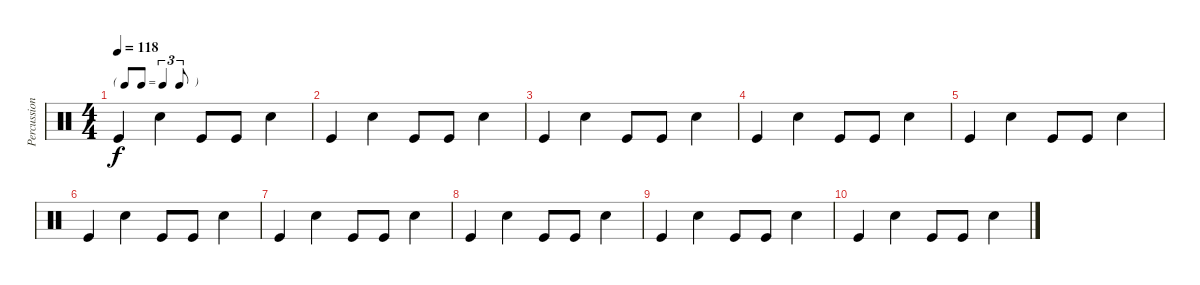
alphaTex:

\track ("Percussion" "Percussion") {instrument percussion}
\staff {score}
\articulation defaults
\ts (4 4)
\tf triplet8th
\tempo 118
\clef neutral
\ks c "Kick (hit)".4{dy f} "Snare (hit) 2".4 "Kick (hit)".8 "Kick (hit)".8 "Snare (hit) 2".4
|
"Kick (hit)".4 "Snare (hit) 2".4 "Kick (hit)".8 "Kick (hit)".8 "Snare (hit) 2".4 |
"Kick (hit)".4 "Snare (hit) 2".4 "Kick (hit)".8 "Kick (hit)".8 "Snare (hit) 2".4 |
"Kick (hit)".4 "Snare (hit) 2".4 "Kick (hit)".8 "Kick (hit)".8 "Snare (hit) 2".4 |
"Kick (hit)".4 "Snare (hit) 2".4 "Kick (hit)".8 "Kick (hit)".8 "Snare (hit) 2".4 |
"Kick (hit)".4{volume 10} "Snare (hit) 2".4 "Kick (hit)".8 "Kick (hit)".8 "Snare (hit) 2".4 |
"Kick (hit)".4{volume 8} "Snare (hit) 2".4 "Kick (hit)".8 "Kick (hit)".8 "Snare (hit) 2".4 |
"Kick (hit)".4{volume 6} "Snare (hit) 2".4 "Kick (hit)".8 "Kick (hit)".8 "Snare (hit) 2".4 |
"Kick (hit)".4{volume 3} "Snare (hit) 2".4 "Kick (hit)".8 "Kick (hit)".8 "Snare (hit) 2".4 |
"Kick (hit)".4{volume 1} "Snare (hit) 2".4 "Kick (hit)".8 "Kick (hit)".8 "Snare (hit) 2".4
